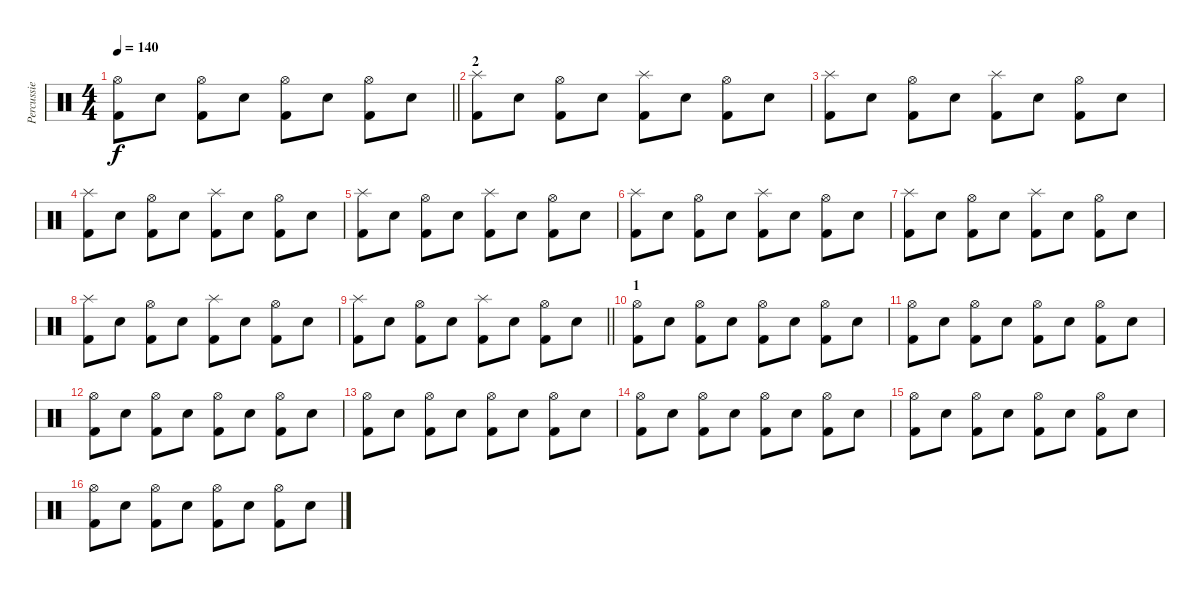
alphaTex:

\track ("Percussie" "Percussie") {instrument percussion}
\staff {score}
\articulation defaults
\ts (4 4)
\tempo 140
\clef neutral
\barLineRight lightlight
\ks c
("Hi-Hat (open)" "Kick (hit) 2").8{dy f} "Snare (hit) 2".8 ("Hi-Hat (open)" "Kick (hit) 2").8 "Snare (hit) 2".8 ("Hi-Hat (open)" "Kick (hit) 2").8 "Snare (hit) 2".8 ("Hi-Hat (open)" "Kick (hit) 2").8 "Snare (hit) 2".8 |
\section ("" "2")
("Splash (hit)" "Kick (hit) 2").8 "Snare (hit) 2".8 ("Hi-Hat (open)" "Kick (hit) 2").8 "Snare (hit) 2".8 ("Splash (hit)" "Kick (hit) 2").8 "Snare (hit) 2".8 ("Hi-Hat (open)" "Kick (hit) 2").8 "Snare (hit) 2".8 |
("Splash (hit)" "Kick (hit) 2").8 "Snare (hit) 2".8 ("Hi-Hat (open)" "Kick (hit) 2").8 "Snare (hit) 2".8 ("Splash (hit)" "Kick (hit) 2").8 "Snare (hit) 2".8 ("Hi-Hat (open)" "Kick (hit) 2").8 "Snare (hit) 2".8 |
("Splash (hit)" "Kick (hit) 2").8 "Snare (hit) 2".8 ("Hi-Hat (open)" "Kick (hit) 2").8 "Snare (hit) 2".8 ("Splash (hit)" "Kick (hit) 2").8 "Snare (hit) 2".8 ("Hi-Hat (open)" "Kick (hit) 2").8 "Snare (hit) 2".8 |
("Splash (hit)" "Kick (hit) 2").8 "Snare (hit) 2".8 ("Hi-Hat (open)" "Kick (hit) 2").8 "Snare (hit) 2".8 ("Splash (hit)" "Kick (hit) 2").8 "Snare (hit) 2".8 ("Hi-Hat (open)" "Kick (hit) 2").8 "Snare (hit) 2".8 |
("Splash (hit)" "Kick (hit) 2").8 "Snare (hit) 2".8 ("Hi-Hat (open)" "Kick (hit) 2").8 "Snare (hit) 2".8 ("Splash (hit)" "Kick (hit) 2").8 "Snare (hit) 2".8 ("Hi-Hat (open)" "Kick (hit) 2").8 "Snare (hit) 2".8 |
("Splash (hit)" "Kick (hit) 2").8 "Snare (hit) 2".8 ("Hi-Hat (open)" "Kick (hit) 2").8 "Snare (hit) 2".8 ("Splash (hit)" "Kick (hit) 2").8 "Snare (hit) 2".8 ("Hi-Hat (open)" "Kick (hit) 2").8 "Snare (hit) 2".8 |
("Splash (hit)" "Kick (hit) 2").8 "Snare (hit) 2".8 ("Hi-Hat (open)" "Kick (hit) 2").8 "Snare (hit) 2".8 ("Splash (hit)" "Kick (hit) 2").8 "Snare (hit) 2".8 ("Hi-Hat (open)" "Kick (hit) 2").8 "Snare (hit) 2".8 |
\barLineRight lightlight
("Splash (hit)" "Kick (hit) 2").8 "Snare (hit) 2".8 ("Hi-Hat (open)" "Kick (hit) 2").8 "Snare (hit) 2".8 ("Splash (hit)" "Kick (hit) 2").8 "Snare (hit) 2".8 ("Hi-Hat (open)" "Kick (hit) 2").8 "Snare (hit) 2".8 |
\section ("" "1")
("Hi-Hat (open)" "Kick (hit) 2").8 "Snare (hit) 2".8 ("Hi-Hat (open)" "Kick (hit) 2").8 "Snare (hit) 2".8 ("Hi-Hat (open)" "Kick (hit) 2").8 "Snare (hit) 2".8 ("Hi-Hat (open)" "Kick (hit) 2").8 "Snare (hit) 2".8 |
("Hi-Hat (open)" "Kick (hit) 2").8 "Snare (hit) 2".8 ("Hi-Hat (open)" "Kick (hit) 2").8 "Snare (hit) 2".8 ("Hi-Hat (open)" "Kick (hit) 2").8 "Snare (hit) 2".8 ("Hi-Hat (open)" "Kick (hit) 2").8 "Snare (hit) 2".8 |
("Hi-Hat (open)" "Kick (hit) 2").8 "Snare (hit) 2".8 ("Hi-Hat (open)" "Kick (hit) 2").8 "Snare (hit) 2".8 ("Hi-Hat (open)" "Kick (hit) 2").8 "Snare (hit) 2".8 ("Hi-Hat (open)" "Kick (hit) 2").8 "Snare (hit) 2".8 |
("Hi-Hat (open)" "Kick (hit) 2").8 "Snare (hit) 2".8 ("Hi-Hat (open)" "Kick (hit) 2").8 "Snare (hit) 2".8 ("Hi-Hat (open)" "Kick (hit) 2").8 "Snare (hit) 2".8 ("Hi-Hat (open)" "Kick (hit) 2").8 "Snare (hit) 2".8 |
("Hi-Hat (open)" "Kick (hit) 2").8 "Snare (hit) 2".8 ("Hi-Hat (open)" "Kick (hit) 2").8 "Snare (hit) 2".8 ("Hi-Hat (open)" "Kick (hit) 2").8 "Snare (hit) 2".8 ("Hi-Hat (open)" "Kick (hit) 2").8 "Snare (hit) 2".8 |
("Hi-Hat (open)" "Kick (hit) 2").8 "Snare (hit) 2".8 ("Hi-Hat (open)" "Kick (hit) 2").8 "Snare (hit) 2".8 ("Hi-Hat (open)" "Kick (hit) 2").8 "Snare (hit) 2".8 ("Hi-Hat (open)" "Kick (hit) 2").8 "Snare (hit) 2".8 |
("Hi-Hat (open)" "Kick (hit) 2").8 "Snare (hit) 2".8 ("Hi-Hat (open)" "Kick (hit) 2").8 "Snare (hit) 2".8 ("Hi-Hat (open)" "Kick (hit) 2").8 "Snare (hit) 2".8 ("Hi-Hat (open)" "Kick (hit) 2").8 "Snare (hit) 2".8
